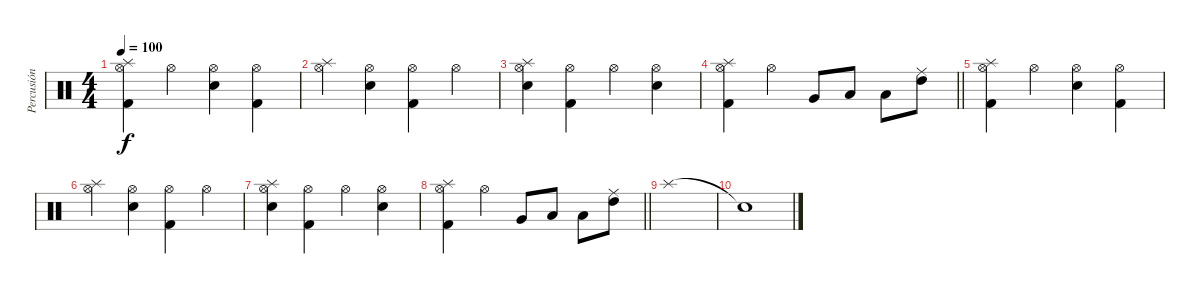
\track ("Percusión" "Percusión") {instrument percussion}
\staff {score}
\articulation defaults
\ts (4 4)
\tempo 100
\clef neutral
\ks c
("Splash (hit)" "Hi-Hat (open)" "Kick (hit) 2").4{dy f} "Hi-Hat (open)".4 ("Snare (hit) 2" "Hi-Hat (open)").4 ("Hi-Hat (open)" "Kick (hit) 2").4 |
("Splash (hit)" "Hi-Hat (open)").4 ("Snare (hit) 2" "Hi-Hat (open)").4 ("Hi-Hat (open)" "Kick (hit) 2").4 "Hi-Hat (open)".4 |
("Splash (hit)" "Snare (hit) 2" "Hi-Hat (open)").4 ("Hi-Hat (open)" "Kick (hit) 2").4 "Hi-Hat (open)".4 ("Snare (hit) 2" "Hi-Hat (open)").4 |
\barLineRight lightlight
("Splash (hit)" "Hi-Hat (open)" "Kick (hit) 2").4 "Hi-Hat (open)".4 "Very Low Tom (hit)".8 "Low Floor Tom (hit)".8 "Low Tom (hit)".8 ("High Tom (hit)" "Ride (middle)").8 |
("Splash (hit)" "Hi-Hat (open)" "Kick (hit) 2").4 "Hi-Hat (open)".4 ("Snare (hit) 2" "Hi-Hat (open)").4 ("Hi-Hat (open)" "Kick (hit) 2").4 |
("Splash (hit)" "Hi-Hat (open)").4 ("Snare (hit) 2" "Hi-Hat (open)").4 ("Hi-Hat (open)" "Kick (hit) 2").4 "Hi-Hat (open)".4 |
("Splash (hit)" "Snare (hit) 2" "Hi-Hat (open)").4 ("Hi-Hat (open)" "Kick (hit) 2").4 "Hi-Hat (open)".4 ("Snare (hit) 2" "Hi-Hat (open)").4 |
\barLineRight lightlight
("Splash (hit)" "Hi-Hat (open)" "Kick (hit) 2").4 "Hi-Hat (open)".4 "Very Low Tom (hit)".8 "Low Floor Tom (hit)".8 "Low Tom (hit)".8 ("High Tom (hit)" "Ride (middle)").8 |
"Splash (hit)".1 |
"Snare (hit)"{t}.1
